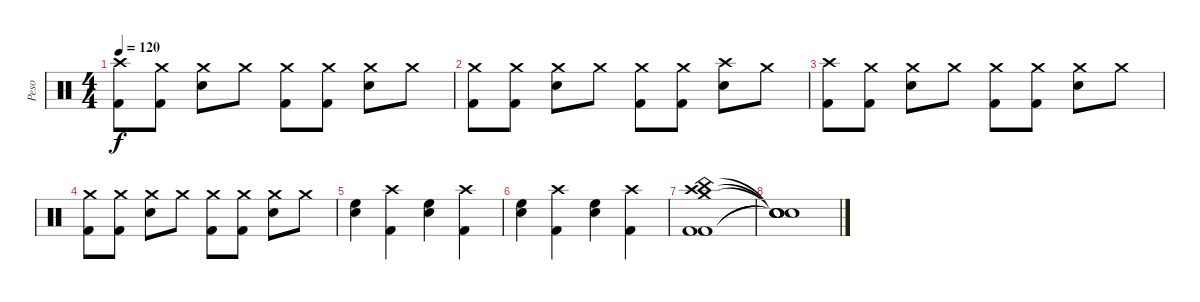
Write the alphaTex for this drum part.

\track ("Peso" "Peso") {instrument percussion}
\staff {score}
\articulation defaults
\ts (4 4)
\tempo 120
\clef neutral
\ks c
("Crash high (hit)" "Kick (hit) 2").8{dy f} ("Crash medium (hit)" "Kick (hit) 2").8 ("Crash medium (hit)" "Snare (hit) 2").8 "Crash medium (hit)".8 ("Crash medium (hit)" "Kick (hit) 2").8 ("Crash medium (hit)" "Kick (hit) 2").8 ("Crash medium (hit)" "Snare (hit) 2").8 "Crash medium (hit)".8 |
("Crash medium (hit)" "Kick (hit) 2").8 ("Crash medium (hit)" "Kick (hit) 2").8 ("Crash medium (hit)" "Snare (hit) 2").8 "Crash medium (hit)".8 ("Crash medium (hit)" "Kick (hit) 2").8 ("Crash medium (hit)" "Kick (hit) 2").8 ("Crash high (hit)" "Snare (hit) 2").8 "Crash medium (hit)".8 |
("Crash high (hit)" "Kick (hit) 2").8 ("Crash medium (hit)" "Kick (hit) 2").8 ("Crash medium (hit)" "Snare (hit) 2").8 "Crash medium (hit)".8 ("Crash medium (hit)" "Kick (hit) 2").8 ("Crash medium (hit)" "Kick (hit) 2").8 ("Crash medium (hit)" "Snare (hit) 2").8 "Crash medium (hit)".8 |
("Crash medium (hit)" "Kick (hit) 2").8 ("Crash medium (hit)" "Kick (hit) 2").8 ("Crash medium (hit)" "Snare (hit) 2").8 "Crash medium (hit)".8 ("Crash medium (hit)" "Kick (hit) 2").8 ("Crash medium (hit)" "Kick (hit) 2").8 ("Crash medium (hit)" "Snare (hit) 2").8 "Crash medium (hit)".8 |
("High Floor Tom (hit)" "Snare (hit) 2").4 ("Crash high (hit)" "Kick (hit) 2").4 ("High Floor Tom (hit)" "Snare (hit) 2").4 ("Crash high (hit)" "Kick (hit) 2").4 |
("High Floor Tom (hit)" "Snare (hit) 2").4 ("Crash high (hit)" "Kick (hit) 2").4 ("High Floor Tom (hit)" "Snare (hit) 2").4 ("Crash high (hit)" "Kick (hit) 2").4 |
("Crash high (hit)" "Crash medium (hit)" "China (hit)" "Kick (hit) 2" "Kick (hit) 2").1 |
("Snare (hit)"{t} "Snare (hit)"{t} "Snare (hit)"{t} "Snare (hit)"{t} "Snare (hit)"{t}).1
